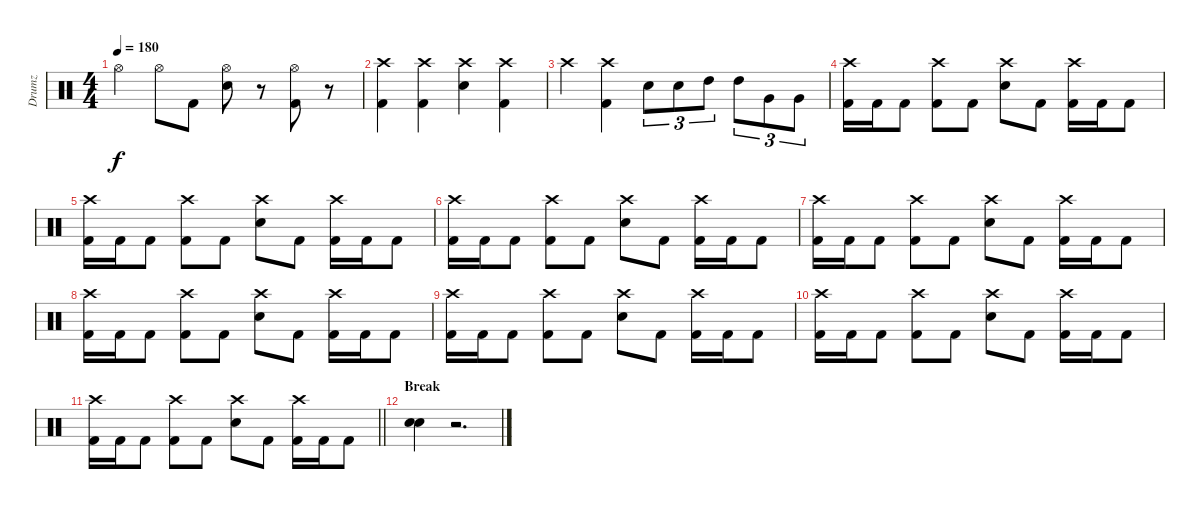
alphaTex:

\track ("Drumz" "Drumz") {instrument percussion}
\staff {score}
\articulation defaults
\ts (4 4)
\tempo 180
\clef neutral
\ks c "Hi-Hat (open)".4{dy f} "Hi-Hat (open)".8 "Kick (hit) 2".8
("Hi-Hat (open)" "Snare (hit) 2").8 r.8 ("Kick (hit) 2" "Hi-Hat (open)").8 r.8 |
("Kick (hit) 2" "Crash high (hit)").4 ("Kick (hit) 2" "Crash high (hit)").4 ("Crash high (hit)" "Snare (hit) 2").4 ("Kick (hit) 2" "Crash high (hit)").4 |
"Crash high (hit)".4 ("Kick (hit) 2" "Crash high (hit)").4 "Snare (hit) 2".8{tu (3 2)} "Snare (hit) 2".8{tu (3 2)} "High Tom (hit)".8{tu (3 2)} "High Tom (hit)".8{tu (3 2)} "Very Low Tom (hit)".8{tu (3 2)} "Very Low Tom (hit)".8{tu (3 2)} |
("Crash high (hit)" "Kick (hit) 2").16 "Kick (hit) 2".16 "Kick (hit) 2".8 ("Crash high (hit)" "Kick (hit) 2").8 "Kick (hit) 2".8 ("Crash high (hit)" "Snare (hit) 2").8 "Kick (hit) 2".8 ("Crash high (hit)" "Kick (hit) 2").16 "Kick (hit) 2".16 "Kick (hit) 2".8 |
("Crash high (hit)" "Kick (hit) 2").16 "Kick (hit) 2".16 "Kick (hit) 2".8 ("Crash high (hit)" "Kick (hit) 2").8 "Kick (hit) 2".8 ("Crash high (hit)" "Snare (hit) 2").8 "Kick (hit) 2".8 ("Crash high (hit)" "Kick (hit) 2").16 "Kick (hit) 2".16 "Kick (hit) 2".8 |
("Crash high (hit)" "Kick (hit) 2").16 "Kick (hit) 2".16 "Kick (hit) 2".8 ("Crash high (hit)" "Kick (hit) 2").8 "Kick (hit) 2".8 ("Crash high (hit)" "Snare (hit) 2").8 "Kick (hit) 2".8 ("Crash high (hit)" "Kick (hit) 2").16 "Kick (hit) 2".16 "Kick (hit) 2".8 |
("Crash high (hit)" "Kick (hit) 2").16 "Kick (hit) 2".16 "Kick (hit) 2".8 ("Crash high (hit)" "Kick (hit) 2").8 "Kick (hit) 2".8 ("Crash high (hit)" "Snare (hit) 2").8 "Kick (hit) 2".8 ("Crash high (hit)" "Kick (hit) 2").16 "Kick (hit) 2".16 "Kick (hit) 2".8 |
("Crash high (hit)" "Kick (hit) 2").16 "Kick (hit) 2".16 "Kick (hit) 2".8 ("Crash high (hit)" "Kick (hit) 2").8 "Kick (hit) 2".8 ("Crash high (hit)" "Snare (hit) 2").8 "Kick (hit) 2".8 ("Crash high (hit)" "Kick (hit) 2").16 "Kick (hit) 2".16 "Kick (hit) 2".8 |
("Crash high (hit)" "Kick (hit) 2").16 "Kick (hit) 2".16 "Kick (hit) 2".8 ("Crash high (hit)" "Kick (hit) 2").8 "Kick (hit) 2".8 ("Crash high (hit)" "Snare (hit) 2").8 "Kick (hit) 2".8 ("Crash high (hit)" "Kick (hit) 2").16 "Kick (hit) 2".16 "Kick (hit) 2".8 |
("Crash high (hit)" "Kick (hit) 2").16 "Kick (hit) 2".16 "Kick (hit) 2".8 ("Crash high (hit)" "Kick (hit) 2").8 "Kick (hit) 2".8 ("Crash high (hit)" "Snare (hit) 2").8 "Kick (hit) 2".8 ("Crash high (hit)" "Kick (hit) 2").16 "Kick (hit) 2".16 "Kick (hit) 2".8 |
\barLineRight lightlight
("Crash high (hit)" "Kick (hit) 2").16 "Kick (hit) 2".16 "Kick (hit) 2".8 ("Crash high (hit)" "Kick (hit) 2").8 "Kick (hit) 2".8 ("Crash high (hit)" "Snare (hit) 2").8 "Kick (hit) 2".8 ("Crash high (hit)" "Kick (hit) 2").16 "Kick (hit) 2".16 "Kick (hit) 2".8 |
\section ("" "Break")
("Snare (hit) 2" "Snare (hit) 2").4 r.2{d}
